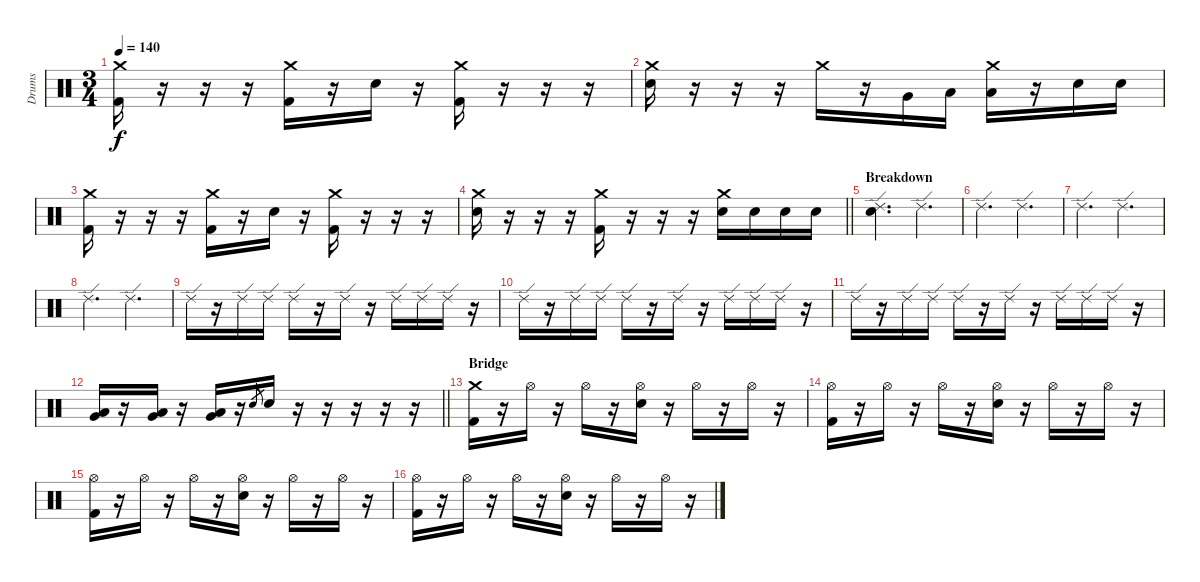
\track ("Drums" "Drums") {instrument percussion}
\staff {score}
\articulation defaults
\ts (3 4)
\tempo 140
\clef neutral
\ks c
("Crash medium (hit)" "Kick (hit) 2").16{dy f} r.16 r.16 r.16 ("Crash medium (hit)" "Kick (hit) 2").16 r.16 "Electric Snare (hit)".16 r.16 ("Crash medium (hit)" "Kick (hit) 2").16 r.16 r.16 r.16 |
("Crash medium (hit)" "Electric Snare (hit)").16 r.16 r.16 r.16 "Crash medium (hit)".16 r.16 "Very Low Tom (hit)".16 "Low Floor Tom (hit)".16 ("Crash medium (hit)" "Low Floor Tom (hit)").16 r.16 "Electric Snare (hit)".16 "Electric Snare (hit)".16 |
("Crash medium (hit)" "Kick (hit) 2").16 r.16 r.16 r.16 ("Crash medium (hit)" "Kick (hit) 2").16 r.16 "Electric Snare (hit)".16 r.16 ("Crash medium (hit)" "Kick (hit) 2").16 r.16 r.16 r.16 |
\barLineRight lightlight
("Crash medium (hit)" "Electric Snare (hit)").16 r.16 r.16 r.16 ("Crash medium (hit)" "Kick (hit) 2").16 r.16 r.16 r.16 ("Crash medium (hit)" "Electric Snare (hit)").16 "Electric Snare (hit)".16 "Electric Snare (hit)".16 "Electric Snare (hit)".16 |
\section ("" "Breakdown")
("Ride (edge) 2" "Electric Snare (hit)").4{d} "Ride (edge) 2".4{d} |
"Ride (edge) 2".4{d} "Ride (edge) 2".4{d} |
"Ride (edge) 2".4{d} "Ride (edge) 2".4{d} |
"Ride (edge) 2".4{d} "Ride (edge) 2".4{d} |
"Ride (edge) 2".16 r.16 "Ride (edge) 2".16 "Ride (edge) 2".16 "Ride (edge) 2".16 r.16 "Ride (edge) 2".16 r.16 "Ride (edge) 2".16 "Ride (edge) 2".16 "Ride (edge) 2".16 r.16 |
"Ride (edge) 2".16 r.16 "Ride (edge) 2".16 "Ride (edge) 2".16 "Ride (edge) 2".16 r.16 "Ride (edge) 2".16 r.16 "Ride (edge) 2".16 "Ride (edge) 2".16 "Ride (edge) 2".16 r.16 |
"Ride (edge) 2".16 r.16 "Ride (edge) 2".16 "Ride (edge) 2".16 "Ride (edge) 2".16 r.16 "Ride (edge) 2".16 r.16 "Ride (edge) 2".16 "Ride (edge) 2".16 "Ride (edge) 2".16 r.16 |
\barLineRight lightlight
("Low Floor Tom (hit)" "Very Low Tom (hit)").16 r.16 ("Low Floor Tom (hit)" "Very Low Tom (hit)").16 r.16 ("Low Floor Tom (hit)" "Very Low Tom (hit)").16 r.16 "Electric Snare (hit)".8{gr} "Electric Snare (hit)".16 r.16 r.16 r.16 r.16 r.16 |
\section ("" "Bridge ")
("Crash medium (hit)" "Kick (hit) 2").16 r.16 "Hi-Hat (open)".16 r.16 "Hi-Hat (open)".16 r.16 ("Hi-Hat (open)" "Electric Snare (hit)").16 r.16 "Hi-Hat (open)".16 r.16 "Hi-Hat (open)".16 r.16 |
("Hi-Hat (open)" "Kick (hit) 2").16 r.16 "Hi-Hat (open)".16 r.16 "Hi-Hat (open)".16 r.16 ("Hi-Hat (open)" "Electric Snare (hit)").16 r.16 "Hi-Hat (open)".16 r.16 "Hi-Hat (open)".16 r.16 |
("Hi-Hat (open)" "Kick (hit) 2").16 r.16 "Hi-Hat (open)".16 r.16 "Hi-Hat (open)".16 r.16 ("Hi-Hat (open)" "Electric Snare (hit)").16 r.16 "Hi-Hat (open)".16 r.16 "Hi-Hat (open)".16 r.16 |
("Hi-Hat (open)" "Kick (hit) 2").16 r.16 "Hi-Hat (open)".16 r.16 "Hi-Hat (open)".16 r.16 ("Hi-Hat (open)" "Electric Snare (hit)").16 r.16 "Hi-Hat (open)".16 r.16 "Hi-Hat (open)".16 r.16
